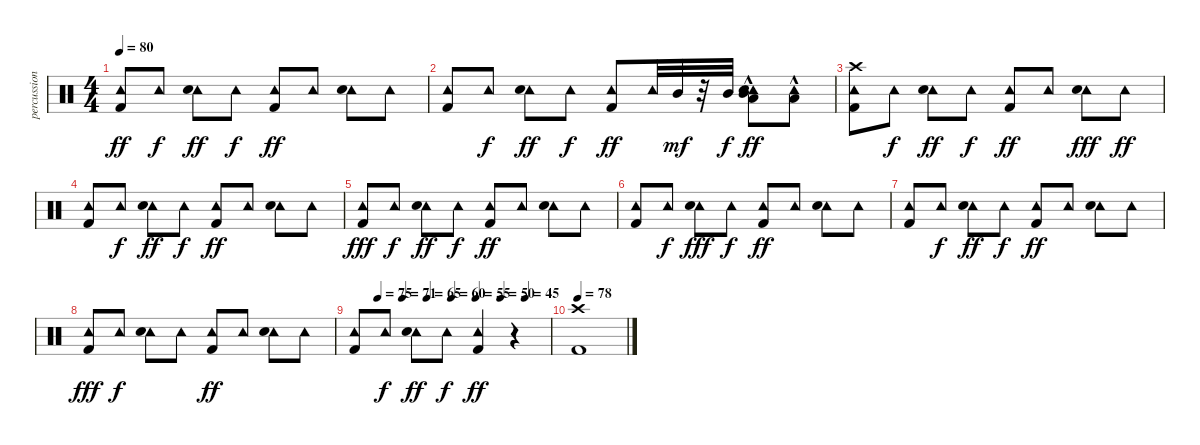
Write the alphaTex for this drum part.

\track ("percussion" "percussion") {instrument percussion}
\staff {score}
\articulation defaults
\ts (4 4)
\tempo 80
\clef neutral
\ks c
("Kick (hit) 2" "Tambourine (hit)").8{dy ff} "Tambourine (hit)".8{dy f} ("Tambourine (hit)" "Electric Snare (hit)").8{dy ff} "Tambourine (hit)".8{dy f} ("Kick (hit) 2" "Tambourine (hit)").8{dy ff} "Tambourine (hit)".8 ("Tambourine (hit)" "Electric Snare (hit)").8 "Tambourine (hit)".8 |
("Kick (hit) 2" "Tambourine (hit)").8 "Tambourine (hit)".8{dy f} ("Tambourine (hit)" "Electric Snare (hit)").8{dy ff} "Tambourine (hit)".8{dy f} ("Kick (hit) 2" "Tambourine (hit)").8{dy ff} "Tambourine (hit)".32 "Mid Tom (hit)".32{dy mf} r.32 "Mid Tom (hit)".32{dy f} ("Mid Tom (hit)" "Low Tom (hit)"{hac} "Tambourine (hit)" "Electric Snare (hit)").8{dy ff} ("Low Tom (hit)"{hac} "Tambourine (hit)").8 |
("Kick (hit) 2" "Crash high (hit)" "Tambourine (hit)").8 "Tambourine (hit)".8{dy f} ("Tambourine (hit)" "Electric Snare (hit)").8{dy ff} "Tambourine (hit)".8{dy f} ("Kick (hit) 2" "Tambourine (hit)").8{dy ff} "Tambourine (hit)".8 ("Tambourine (hit)" "Electric Snare (hit)").8{dy fff} "Tambourine (hit)".8{dy ff} |
("Kick (hit) 2" "Tambourine (hit)").8 "Tambourine (hit)".8{dy f} ("Tambourine (hit)" "Electric Snare (hit)").8{dy ff} "Tambourine (hit)".8{dy f} ("Kick (hit) 2" "Tambourine (hit)").8{dy ff} "Tambourine (hit)".8 ("Tambourine (hit)" "Electric Snare (hit)").8 "Tambourine (hit)".8 |
("Kick (hit) 2" "Tambourine (hit)").8{dy fff} "Tambourine (hit)".8{dy f} ("Tambourine (hit)" "Electric Snare (hit)").8{dy ff} "Tambourine (hit)".8{dy f} ("Kick (hit) 2" "Tambourine (hit)").8{dy ff} "Tambourine (hit)".8 ("Tambourine (hit)" "Electric Snare (hit)").8 "Tambourine (hit)".8 |
("Kick (hit) 2" "Tambourine (hit)").8 "Tambourine (hit)".8{dy f} ("Tambourine (hit)" "Electric Snare (hit)").8{dy fff} "Tambourine (hit)".8{dy f} ("Kick (hit) 2" "Tambourine (hit)").8{dy ff} "Tambourine (hit)".8 ("Tambourine (hit)" "Electric Snare (hit)").8 "Tambourine (hit)".8 |
("Kick (hit) 2" "Tambourine (hit)").8 "Tambourine (hit)".8{dy f} ("Tambourine (hit)" "Electric Snare (hit)").8{dy ff} "Tambourine (hit)".8{dy f} ("Kick (hit) 2" "Tambourine (hit)").8{dy ff} "Tambourine (hit)".8 ("Tambourine (hit)" "Electric Snare (hit)").8 "Tambourine (hit)".8 |
("Kick (hit) 2" "Tambourine (hit)").8{dy fff} "Tambourine (hit)".8{dy f} ("Tambourine (hit)" "Electric Snare (hit)").8 "Tambourine (hit)".8 ("Kick (hit) 2" "Tambourine (hit)").8{dy ff} "Tambourine (hit)".8 ("Tambourine (hit)" "Electric Snare (hit)").8 "Tambourine (hit)".8 |
\tempo (75 0.125)
\tempo (71 0.25)
\tempo (65 0.375)
\tempo (60 0.5)
\tempo (55 0.625)
\tempo (50 0.75)
\tempo (45 0.875)
("Kick (hit) 2" "Tambourine (hit)").8 "Tambourine (hit)".8{dy f} ("Tambourine (hit)" "Electric Snare (hit)").8{dy ff} "Tambourine (hit)".8{dy f} ("Kick (hit) 2" "Tambourine (hit)").4{dy ff} r.4 |
\tempo 78
("Kick (hit) 2" "Crash high (hit)").1
